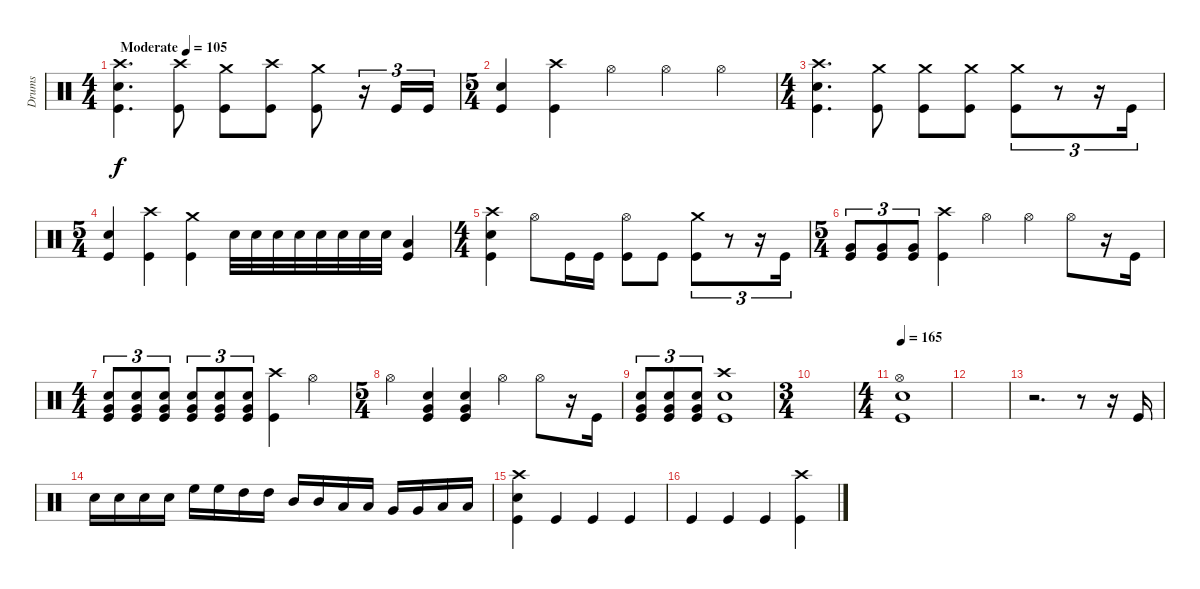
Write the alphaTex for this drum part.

\track ("Drums" "Drums") {instrument percussion}
\staff {score}
\articulation defaults
\ts (4 4)
\tempo (105 "Moderate")
\clef neutral
\ks c
("Kick (hit)" "Snare (hit) 2" "Crash high (hit)").4{d dy f} ("Kick (hit)" "Crash high (hit)").8 ("Kick (hit)" "Crash medium (hit)").8 ("Kick (hit)" "Crash high (hit)").8 ("Kick (hit)" "Crash medium (hit)").8 r.16{tu (3 2)} "Kick (hit)".16{tu (3 2)} "Kick (hit)".16{tu (3 2)} |
\ts (5 4)
("Kick (hit)" "Snare (hit) 2").4 ("Kick (hit)" "Crash high (hit)").4 "Hi-Hat (open)".4 "Hi-Hat (open)".4 "Hi-Hat (open)".4 |
\ts (4 4)
("Kick (hit)" "Snare (hit) 2" "Crash high (hit)").4{d} ("Kick (hit)" "Crash medium (hit)").8 ("Kick (hit)" "Crash medium (hit)").8 ("Kick (hit)" "Crash medium (hit)").8 ("Kick (hit)" "Crash medium (hit)").8{tu (3 2)} r.8{tu (3 2)} r.16{tu (3 2)} "Kick (hit)".16{tu (3 2)} |
\ts (5 4)
("Snare (hit) 2" "Kick (hit)").4 ("Kick (hit)" "Crash high (hit)").4 ("Kick (hit)" "Crash medium (hit)").4 "Snare (hit) 2".32{volume 7} "Snare (hit) 2".32 "Snare (hit) 2".32 "Snare (hit) 2".32 "Snare (hit) 2".32 "Snare (hit) 2".32 "Snare (hit) 2".32 "Snare (hit) 2".32 ("Low Floor Tom (hit)" "Kick (hit)").4{volume 13} |
\ts (4 4)
("Kick (hit)" "Snare (hit) 2" "Crash high (hit)").4 "Hi-Hat (open)".8 "Kick (hit)".16 "Kick (hit)".16 ("Kick (hit)" "Hi-Hat (open)").8 "Kick (hit)".8 ("Kick (hit)" "Crash medium (hit)").8{tu (3 2)} r.8{tu (3 2)} r.16{tu (3 2)} "Kick (hit)".16{tu (3 2)} |
\ts (5 4)
("Very Low Tom (hit)" "Kick (hit)").8{tu (3 2)} ("Very Low Tom (hit)" "Kick (hit)").8{tu (3 2)} ("Very Low Tom (hit)" "Kick (hit)").8{tu (3 2)} ("Kick (hit)" "Crash high (hit)").4 "Hi-Hat (open)".4 "Hi-Hat (open)".4 "Hi-Hat (open)".8 r.16 "Kick (hit)".16 |
\ts (4 4)
("Snare (hit) 2" "Kick (hit)" "Very Low Tom (hit)").8{tu (3 2)} ("Snare (hit) 2" "Kick (hit)" "Very Low Tom (hit)").8{tu (3 2)} ("Snare (hit) 2" "Kick (hit)" "Very Low Tom (hit)").8{tu (3 2)} ("Snare (hit) 2" "Kick (hit)" "Very Low Tom (hit)").8{tu (3 2)} ("Snare (hit) 2" "Kick (hit)" "Very Low Tom (hit)").8{tu (3 2)} ("Snare (hit) 2" "Kick (hit)" "Very Low Tom (hit)").8{tu (3 2)} ("Kick (hit)" "Crash high (hit)").4 "Hi-Hat (open)".4 |
\ts (5 4)
"Hi-Hat (open)".4 ("Kick (hit)" "Snare (hit) 2" "Very Low Tom (hit)").4 ("Kick (hit)" "Snare (hit) 2" "Very Low Tom (hit)").4 "Hi-Hat (open)".4 "Hi-Hat (open)".8 r.16 "Kick (hit)".16 |
("Kick (hit)" "Snare (hit) 2" "Very Low Tom (hit)").8{tu (3 2)} ("Kick (hit)" "Snare (hit) 2" "Very Low Tom (hit)").8{tu (3 2)} ("Kick (hit)" "Snare (hit) 2" "Very Low Tom (hit)").8{tu (3 2)} ("Kick (hit)" "Snare (hit) 2" "Crash high (hit)").1 |
\ts (3 4)
|
\ts (4 4)
\tempo 165
("Hi-Hat (open)" "Kick (hit)" "Snare (hit) 2").1 |
|
r.2{d} r.8 r.16 "Kick (hit)".16 |
"Snare (hit) 2".16 "Snare (hit) 2".16 "Snare (hit) 2".16 "Snare (hit) 2".16 "High Floor Tom (hit)".16 "High Floor Tom (hit)".16 "High Tom (hit)".16 "High Tom (hit)".16 "Mid Tom (hit)".16 "Mid Tom (hit)".16 "Low Tom (hit)".16 "Low Tom (hit)".16 "Very Low Tom (hit)".16 "Very Low Tom (hit)".16 "Low Floor Tom (hit)".16 "Low Floor Tom (hit)".16 |
("Kick (hit)" "Snare (hit) 2" "Crash high (hit)").4 "Kick (hit)".4 "Kick (hit)".4 "Kick (hit)".4 |
"Kick (hit)".4 "Kick (hit)".4 "Kick (hit)".4 ("Kick (hit)" "Crash high (hit)").4
